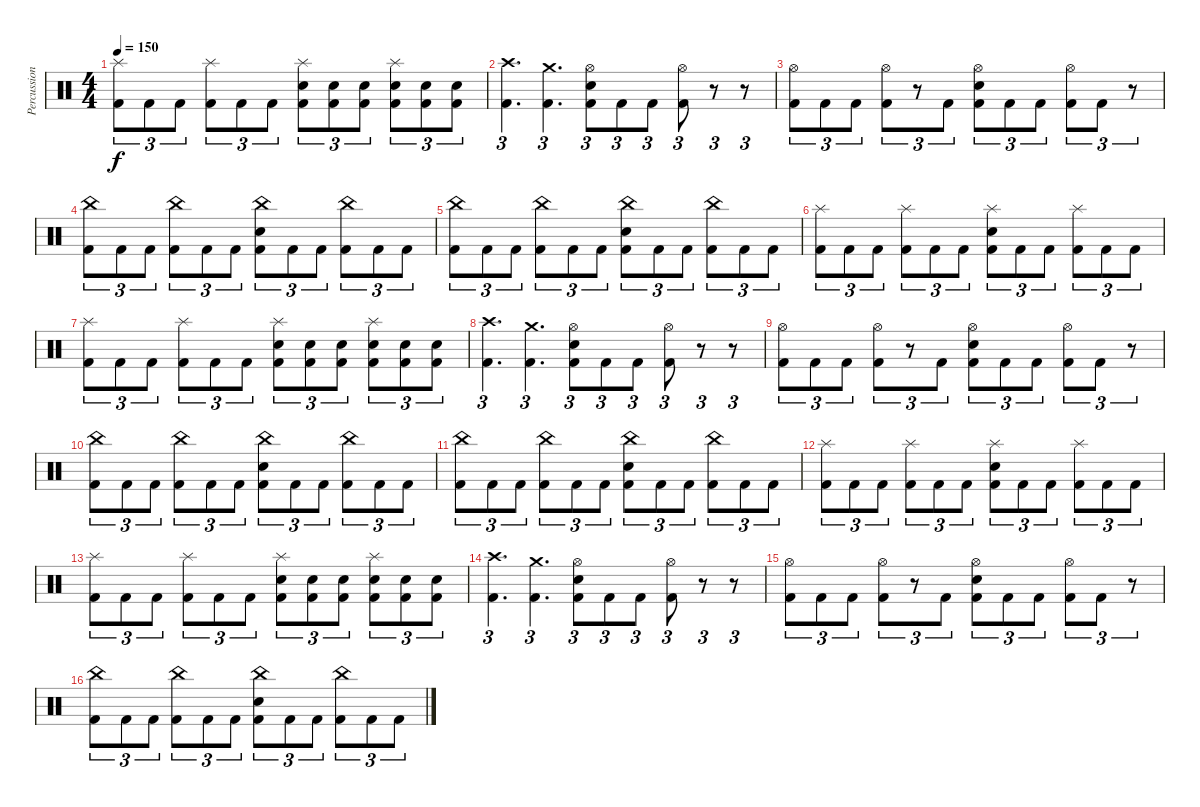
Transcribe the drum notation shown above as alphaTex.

\track ("Percussion" "Percussion") {instrument percussion}
\staff {score}
\articulation defaults
\ts (4 4)
\tempo 150
\clef neutral
\ks c
("Splash (hit)" "Kick (hit) 2").8{tu (3 2) dy f} "Kick (hit) 2".8{tu (3 2)} "Kick (hit) 2".8{tu (3 2)} ("Splash (hit)" "Kick (hit) 2").8{tu (3 2)} "Kick (hit) 2".8{tu (3 2)} "Kick (hit) 2".8{tu (3 2)} ("Splash (hit)" "Snare (hit) 2" "Kick (hit) 2").8{tu (3 2)} ("Snare (hit) 2" "Kick (hit) 2").8{tu (3 2)} ("Snare (hit) 2" "Kick (hit) 2").8{tu (3 2)} ("Splash (hit)" "Snare (hit) 2" "Kick (hit) 2").8{tu (3 2)} ("Snare (hit) 2" "Kick (hit) 2").8{tu (3 2)} ("Snare (hit) 2" "Kick (hit) 2").8{tu (3 2)} |
("Crash high (hit)" "Kick (hit) 2").4{d tu (3 2)} ("Crash medium (hit)" "Kick (hit) 2").4{d tu (3 2)} ("Hi-Hat (open)" "Snare (hit) 2" "Kick (hit) 2").8{tu (3 2)} "Kick (hit) 2".8{tu (3 2)} "Kick (hit) 2".8{tu (3 2)} ("Hi-Hat (open)" "Kick (hit) 2").8{tu (3 2)} r.8{tu (3 2)} r.8{tu (3 2)} |
("Hi-Hat (open)" "Kick (hit) 2").8{tu (3 2)} "Kick (hit) 2".8{tu (3 2)} "Kick (hit) 2".8{tu (3 2)} ("Hi-Hat (open)" "Kick (hit) 2").8{tu (3 2)} r.8{tu (3 2)} "Kick (hit) 2".8{tu (3 2)} ("Hi-Hat (open)" "Snare (hit) 2" "Kick (hit) 2").8{tu (3 2)} "Kick (hit) 2".8{tu (3 2)} "Kick (hit) 2".8{tu (3 2)} ("Hi-Hat (open)" "Kick (hit) 2").8{tu (3 2)} "Kick (hit) 2".8{tu (3 2)} r.8{tu (3 2)} |
("China (hit)" "Kick (hit) 2").8{tu (3 2)} "Kick (hit) 2".8{tu (3 2)} "Kick (hit) 2".8{tu (3 2)} ("China (hit)" "Kick (hit) 2").8{tu (3 2)} "Kick (hit) 2".8{tu (3 2)} "Kick (hit) 2".8{tu (3 2)} ("China (hit)" "Snare (hit) 2" "Kick (hit) 2").8{tu (3 2)} "Kick (hit) 2".8{tu (3 2)} "Kick (hit) 2".8{tu (3 2)} ("China (hit)" "Kick (hit) 2").8{tu (3 2)} "Kick (hit) 2".8{tu (3 2)} "Kick (hit) 2".8{tu (3 2)} |
("China (hit)" "Kick (hit) 2").8{tu (3 2)} "Kick (hit) 2".8{tu (3 2)} "Kick (hit) 2".8{tu (3 2)} ("China (hit)" "Kick (hit) 2").8{tu (3 2)} "Kick (hit) 2".8{tu (3 2)} "Kick (hit) 2".8{tu (3 2)} ("China (hit)" "Snare (hit) 2" "Kick (hit) 2").8{tu (3 2)} "Kick (hit) 2".8{tu (3 2)} "Kick (hit) 2".8{tu (3 2)} ("China (hit)" "Kick (hit) 2").8{tu (3 2)} "Kick (hit) 2".8{tu (3 2)} "Kick (hit) 2".8{tu (3 2)} |
("Splash (hit)" "Kick (hit) 2").8{tu (3 2)} "Kick (hit) 2".8{tu (3 2)} "Kick (hit) 2".8{tu (3 2)} ("Splash (hit)" "Kick (hit) 2").8{tu (3 2)} "Kick (hit) 2".8{tu (3 2)} "Kick (hit) 2".8{tu (3 2)} ("Splash (hit)" "Snare (hit) 2" "Kick (hit) 2").8{tu (3 2)} "Kick (hit) 2".8{tu (3 2)} "Kick (hit) 2".8{tu (3 2)} ("Splash (hit)" "Kick (hit) 2").8{tu (3 2)} "Kick (hit) 2".8{tu (3 2)} "Kick (hit) 2".8{tu (3 2)} |
("Splash (hit)" "Kick (hit) 2").8{tu (3 2)} "Kick (hit) 2".8{tu (3 2)} "Kick (hit) 2".8{tu (3 2)} ("Splash (hit)" "Kick (hit) 2").8{tu (3 2)} "Kick (hit) 2".8{tu (3 2)} "Kick (hit) 2".8{tu (3 2)} ("Splash (hit)" "Snare (hit) 2" "Kick (hit) 2").8{tu (3 2)} ("Snare (hit) 2" "Kick (hit) 2").8{tu (3 2)} ("Snare (hit) 2" "Kick (hit) 2").8{tu (3 2)} ("Splash (hit)" "Snare (hit) 2" "Kick (hit) 2").8{tu (3 2)} ("Snare (hit) 2" "Kick (hit) 2").8{tu (3 2)} ("Snare (hit) 2" "Kick (hit) 2").8{tu (3 2)} |
("Crash high (hit)" "Kick (hit) 2").4{d tu (3 2)} ("Crash medium (hit)" "Kick (hit) 2").4{d tu (3 2)} ("Hi-Hat (open)" "Snare (hit) 2" "Kick (hit) 2").8{tu (3 2)} "Kick (hit) 2".8{tu (3 2)} "Kick (hit) 2".8{tu (3 2)} ("Hi-Hat (open)" "Kick (hit) 2").8{tu (3 2)} r.8{tu (3 2)} r.8{tu (3 2)} |
("Hi-Hat (open)" "Kick (hit) 2").8{tu (3 2)} "Kick (hit) 2".8{tu (3 2)} "Kick (hit) 2".8{tu (3 2)} ("Hi-Hat (open)" "Kick (hit) 2").8{tu (3 2)} r.8{tu (3 2)} "Kick (hit) 2".8{tu (3 2)} ("Hi-Hat (open)" "Snare (hit) 2" "Kick (hit) 2").8{tu (3 2)} "Kick (hit) 2".8{tu (3 2)} "Kick (hit) 2".8{tu (3 2)} ("Hi-Hat (open)" "Kick (hit) 2").8{tu (3 2)} "Kick (hit) 2".8{tu (3 2)} r.8{tu (3 2)} |
("China (hit)" "Kick (hit) 2").8{tu (3 2)} "Kick (hit) 2".8{tu (3 2)} "Kick (hit) 2".8{tu (3 2)} ("China (hit)" "Kick (hit) 2").8{tu (3 2)} "Kick (hit) 2".8{tu (3 2)} "Kick (hit) 2".8{tu (3 2)} ("China (hit)" "Snare (hit) 2" "Kick (hit) 2").8{tu (3 2)} "Kick (hit) 2".8{tu (3 2)} "Kick (hit) 2".8{tu (3 2)} ("China (hit)" "Kick (hit) 2").8{tu (3 2)} "Kick (hit) 2".8{tu (3 2)} "Kick (hit) 2".8{tu (3 2)} |
("China (hit)" "Kick (hit) 2").8{tu (3 2)} "Kick (hit) 2".8{tu (3 2)} "Kick (hit) 2".8{tu (3 2)} ("China (hit)" "Kick (hit) 2").8{tu (3 2)} "Kick (hit) 2".8{tu (3 2)} "Kick (hit) 2".8{tu (3 2)} ("China (hit)" "Snare (hit) 2" "Kick (hit) 2").8{tu (3 2)} "Kick (hit) 2".8{tu (3 2)} "Kick (hit) 2".8{tu (3 2)} ("China (hit)" "Kick (hit) 2").8{tu (3 2)} "Kick (hit) 2".8{tu (3 2)} "Kick (hit) 2".8{tu (3 2)} |
("Splash (hit)" "Kick (hit) 2").8{tu (3 2)} "Kick (hit) 2".8{tu (3 2)} "Kick (hit) 2".8{tu (3 2)} ("Splash (hit)" "Kick (hit) 2").8{tu (3 2)} "Kick (hit) 2".8{tu (3 2)} "Kick (hit) 2".8{tu (3 2)} ("Splash (hit)" "Snare (hit) 2" "Kick (hit) 2").8{tu (3 2)} "Kick (hit) 2".8{tu (3 2)} "Kick (hit) 2".8{tu (3 2)} ("Splash (hit)" "Kick (hit) 2").8{tu (3 2)} "Kick (hit) 2".8{tu (3 2)} "Kick (hit) 2".8{tu (3 2)} |
("Splash (hit)" "Kick (hit) 2").8{tu (3 2)} "Kick (hit) 2".8{tu (3 2)} "Kick (hit) 2".8{tu (3 2)} ("Splash (hit)" "Kick (hit) 2").8{tu (3 2)} "Kick (hit) 2".8{tu (3 2)} "Kick (hit) 2".8{tu (3 2)} ("Splash (hit)" "Snare (hit) 2" "Kick (hit) 2").8{tu (3 2)} ("Snare (hit) 2" "Kick (hit) 2").8{tu (3 2)} ("Snare (hit) 2" "Kick (hit) 2").8{tu (3 2)} ("Splash (hit)" "Snare (hit) 2" "Kick (hit) 2").8{tu (3 2)} ("Snare (hit) 2" "Kick (hit) 2").8{tu (3 2)} ("Snare (hit) 2" "Kick (hit) 2").8{tu (3 2)} |
("Crash high (hit)" "Kick (hit) 2").4{d tu (3 2)} ("Crash medium (hit)" "Kick (hit) 2").4{d tu (3 2)} ("Hi-Hat (open)" "Snare (hit) 2" "Kick (hit) 2").8{tu (3 2)} "Kick (hit) 2".8{tu (3 2)} "Kick (hit) 2".8{tu (3 2)} ("Hi-Hat (open)" "Kick (hit) 2").8{tu (3 2)} r.8{tu (3 2)} r.8{tu (3 2)} |
("Hi-Hat (open)" "Kick (hit) 2").8{tu (3 2)} "Kick (hit) 2".8{tu (3 2)} "Kick (hit) 2".8{tu (3 2)} ("Hi-Hat (open)" "Kick (hit) 2").8{tu (3 2)} r.8{tu (3 2)} "Kick (hit) 2".8{tu (3 2)} ("Hi-Hat (open)" "Snare (hit) 2" "Kick (hit) 2").8{tu (3 2)} "Kick (hit) 2".8{tu (3 2)} "Kick (hit) 2".8{tu (3 2)} ("Hi-Hat (open)" "Kick (hit) 2").8{tu (3 2)} "Kick (hit) 2".8{tu (3 2)} r.8{tu (3 2)} |
("China (hit)" "Kick (hit) 2").8{tu (3 2)} "Kick (hit) 2".8{tu (3 2)} "Kick (hit) 2".8{tu (3 2)} ("China (hit)" "Kick (hit) 2").8{tu (3 2)} "Kick (hit) 2".8{tu (3 2)} "Kick (hit) 2".8{tu (3 2)} ("China (hit)" "Snare (hit) 2" "Kick (hit) 2").8{tu (3 2)} "Kick (hit) 2".8{tu (3 2)} "Kick (hit) 2".8{tu (3 2)} ("China (hit)" "Kick (hit) 2").8{tu (3 2)} "Kick (hit) 2".8{tu (3 2)} "Kick (hit) 2".8{tu (3 2)}
